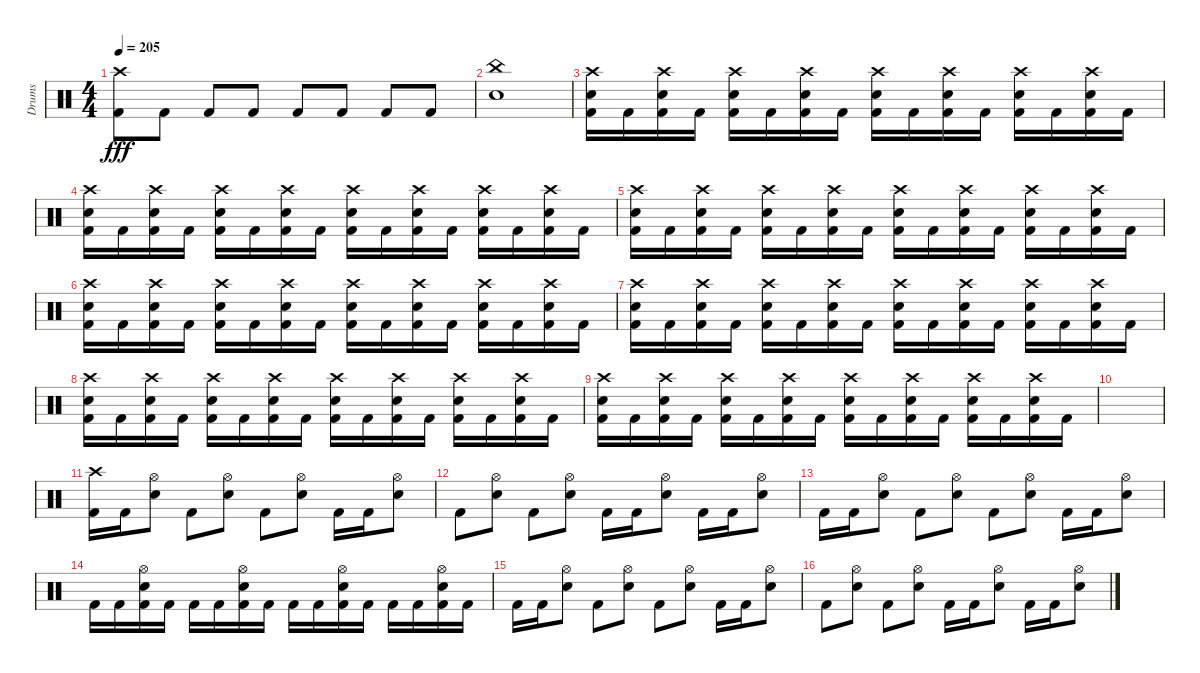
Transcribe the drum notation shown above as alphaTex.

\track ("Drums" "Drums") {instrument percussion}
\staff {score}
\articulation defaults
\ts (4 4)
\tempo 205
\clef neutral
\ks c
("Crash high (hit)" "Kick (hit) 2").8{dy fff} "Kick (hit) 2".8 "Kick (hit) 2".8 "Kick (hit) 2".8 "Kick (hit) 2".8 "Kick (hit) 2".8 "Kick (hit) 2".8 "Kick (hit) 2".8 |
("China (hit)" "Snare (hit) 2").1 |
("Crash high (hit)" "Snare (hit) 2" "Kick (hit) 2").16 "Kick (hit) 2".16 ("Crash high (hit)" "Snare (hit) 2" "Kick (hit) 2").16 "Kick (hit) 2".16 ("Crash high (hit)" "Snare (hit) 2" "Kick (hit) 2").16 "Kick (hit) 2".16 ("Crash high (hit)" "Snare (hit) 2" "Kick (hit) 2").16 "Kick (hit) 2".16 ("Crash high (hit)" "Snare (hit) 2" "Kick (hit) 2").16 "Kick (hit) 2".16 ("Crash high (hit)" "Snare (hit) 2" "Kick (hit) 2").16 "Kick (hit) 2".16 ("Crash high (hit)" "Snare (hit) 2" "Kick (hit) 2").16 "Kick (hit) 2".16 ("Crash high (hit)" "Snare (hit) 2" "Kick (hit) 2").16 "Kick (hit) 2".16 |
("Crash high (hit)" "Snare (hit) 2" "Kick (hit) 2").16 "Kick (hit) 2".16 ("Crash high (hit)" "Snare (hit) 2" "Kick (hit) 2").16 "Kick (hit) 2".16 ("Crash high (hit)" "Snare (hit) 2" "Kick (hit) 2").16 "Kick (hit) 2".16 ("Crash high (hit)" "Snare (hit) 2" "Kick (hit) 2").16 "Kick (hit) 2".16 ("Crash high (hit)" "Snare (hit) 2" "Kick (hit) 2").16 "Kick (hit) 2".16 ("Crash high (hit)" "Snare (hit) 2" "Kick (hit) 2").16 "Kick (hit) 2".16 ("Crash high (hit)" "Snare (hit) 2" "Kick (hit) 2").16 "Kick (hit) 2".16 ("Crash high (hit)" "Snare (hit) 2" "Kick (hit) 2").16 "Kick (hit) 2".16 |
("Crash high (hit)" "Snare (hit) 2" "Kick (hit) 2").16 "Kick (hit) 2".16 ("Crash high (hit)" "Snare (hit) 2" "Kick (hit) 2").16 "Kick (hit) 2".16 ("Crash high (hit)" "Snare (hit) 2" "Kick (hit) 2").16 "Kick (hit) 2".16 ("Crash high (hit)" "Snare (hit) 2" "Kick (hit) 2").16 "Kick (hit) 2".16 ("Crash high (hit)" "Snare (hit) 2" "Kick (hit) 2").16 "Kick (hit) 2".16 ("Crash high (hit)" "Snare (hit) 2" "Kick (hit) 2").16 "Kick (hit) 2".16 ("Crash high (hit)" "Snare (hit) 2" "Kick (hit) 2").16 "Kick (hit) 2".16 ("Crash high (hit)" "Snare (hit) 2" "Kick (hit) 2").16 "Kick (hit) 2".16 |
("Crash high (hit)" "Snare (hit) 2" "Kick (hit) 2").16 "Kick (hit) 2".16 ("Crash high (hit)" "Snare (hit) 2" "Kick (hit) 2").16 "Kick (hit) 2".16 ("Crash high (hit)" "Snare (hit) 2" "Kick (hit) 2").16 "Kick (hit) 2".16 ("Crash high (hit)" "Snare (hit) 2" "Kick (hit) 2").16 "Kick (hit) 2".16 ("Crash high (hit)" "Snare (hit) 2" "Kick (hit) 2").16 "Kick (hit) 2".16 ("Crash high (hit)" "Snare (hit) 2" "Kick (hit) 2").16 "Kick (hit) 2".16 ("Crash high (hit)" "Snare (hit) 2" "Kick (hit) 2").16 "Kick (hit) 2".16 ("Crash high (hit)" "Snare (hit) 2" "Kick (hit) 2").16 "Kick (hit) 2".16 |
("Crash high (hit)" "Snare (hit) 2" "Kick (hit) 2").16 "Kick (hit) 2".16 ("Crash high (hit)" "Snare (hit) 2" "Kick (hit) 2").16 "Kick (hit) 2".16 ("Crash high (hit)" "Snare (hit) 2" "Kick (hit) 2").16 "Kick (hit) 2".16 ("Crash high (hit)" "Snare (hit) 2" "Kick (hit) 2").16 "Kick (hit) 2".16 ("Crash high (hit)" "Snare (hit) 2" "Kick (hit) 2").16 "Kick (hit) 2".16 ("Crash high (hit)" "Snare (hit) 2" "Kick (hit) 2").16 "Kick (hit) 2".16 ("Crash high (hit)" "Snare (hit) 2" "Kick (hit) 2").16 "Kick (hit) 2".16 ("Crash high (hit)" "Snare (hit) 2" "Kick (hit) 2").16 "Kick (hit) 2".16 |
("Crash high (hit)" "Snare (hit) 2" "Kick (hit) 2").16 "Kick (hit) 2".16 ("Crash high (hit)" "Snare (hit) 2" "Kick (hit) 2").16 "Kick (hit) 2".16 ("Crash high (hit)" "Snare (hit) 2" "Kick (hit) 2").16 "Kick (hit) 2".16 ("Crash high (hit)" "Snare (hit) 2" "Kick (hit) 2").16 "Kick (hit) 2".16 ("Crash high (hit)" "Snare (hit) 2" "Kick (hit) 2").16 "Kick (hit) 2".16 ("Crash high (hit)" "Snare (hit) 2" "Kick (hit) 2").16 "Kick (hit) 2".16 ("Crash high (hit)" "Snare (hit) 2" "Kick (hit) 2").16 "Kick (hit) 2".16 ("Crash high (hit)" "Snare (hit) 2" "Kick (hit) 2").16 "Kick (hit) 2".16 |
("Crash high (hit)" "Snare (hit) 2" "Kick (hit) 2").16 "Kick (hit) 2".16 ("Crash high (hit)" "Snare (hit) 2" "Kick (hit) 2").16 "Kick (hit) 2".16 ("Crash high (hit)" "Snare (hit) 2" "Kick (hit) 2").16 "Kick (hit) 2".16 ("Crash high (hit)" "Snare (hit) 2" "Kick (hit) 2").16 "Kick (hit) 2".16 ("Crash high (hit)" "Snare (hit) 2" "Kick (hit) 2").16 "Kick (hit) 2".16 ("Crash high (hit)" "Snare (hit) 2" "Kick (hit) 2").16 "Kick (hit) 2".16 ("Crash high (hit)" "Snare (hit) 2" "Kick (hit) 2").16 "Kick (hit) 2".16 ("Crash high (hit)" "Snare (hit) 2" "Kick (hit) 2").16 "Kick (hit) 2".16 |
|
("Crash high (hit)" "Kick (hit) 2").16 "Kick (hit) 2".16 ("Hi-Hat (open)" "Snare (hit) 2").8 "Kick (hit) 2".8 ("Hi-Hat (open)" "Snare (hit) 2").8 "Kick (hit) 2".8 ("Hi-Hat (open)" "Snare (hit) 2").8 "Kick (hit) 2".16 "Kick (hit) 2".16 ("Hi-Hat (open)" "Snare (hit) 2").8 |
"Kick (hit) 2".8 ("Hi-Hat (open)" "Snare (hit) 2").8 "Kick (hit) 2".8 ("Hi-Hat (open)" "Snare (hit) 2").8 "Kick (hit) 2".16 "Kick (hit) 2".16 ("Hi-Hat (open)" "Snare (hit) 2").8 "Kick (hit) 2".16 "Kick (hit) 2".16 ("Hi-Hat (open)" "Snare (hit) 2").8 |
"Kick (hit) 2".16 "Kick (hit) 2".16 ("Hi-Hat (open)" "Snare (hit) 2").8 "Kick (hit) 2".8 ("Hi-Hat (open)" "Snare (hit) 2").8 "Kick (hit) 2".8 ("Hi-Hat (open)" "Snare (hit) 2").8 "Kick (hit) 2".16 "Kick (hit) 2".16 ("Hi-Hat (open)" "Snare (hit) 2").8 |
"Kick (hit) 2".16 "Kick (hit) 2".16 ("Hi-Hat (open)" "Snare (hit) 2" "Kick (hit) 2").16 "Kick (hit) 2".16 "Kick (hit) 2".16 "Kick (hit) 2".16 ("Hi-Hat (open)" "Snare (hit) 2" "Kick (hit) 2").16 "Kick (hit) 2".16 "Kick (hit) 2".16 "Kick (hit) 2".16 ("Hi-Hat (open)" "Snare (hit) 2" "Kick (hit) 2").16 "Kick (hit) 2".16 "Kick (hit) 2".16 "Kick (hit) 2".16 ("Hi-Hat (open)" "Snare (hit) 2" "Kick (hit) 2").16 "Kick (hit) 2".16 |
"Kick (hit) 2".16 "Kick (hit) 2".16 ("Hi-Hat (open)" "Snare (hit) 2").8 "Kick (hit) 2".8 ("Hi-Hat (open)" "Snare (hit) 2").8 "Kick (hit) 2".8 ("Hi-Hat (open)" "Snare (hit) 2").8 "Kick (hit) 2".16 "Kick (hit) 2".16 ("Hi-Hat (open)" "Snare (hit) 2").8 |
"Kick (hit) 2".8 ("Hi-Hat (open)" "Snare (hit) 2").8 "Kick (hit) 2".8 ("Hi-Hat (open)" "Snare (hit) 2").8 "Kick (hit) 2".16 "Kick (hit) 2".16 ("Hi-Hat (open)" "Snare (hit) 2").8 "Kick (hit) 2".16 "Kick (hit) 2".16 ("Hi-Hat (open)" "Snare (hit) 2").8
